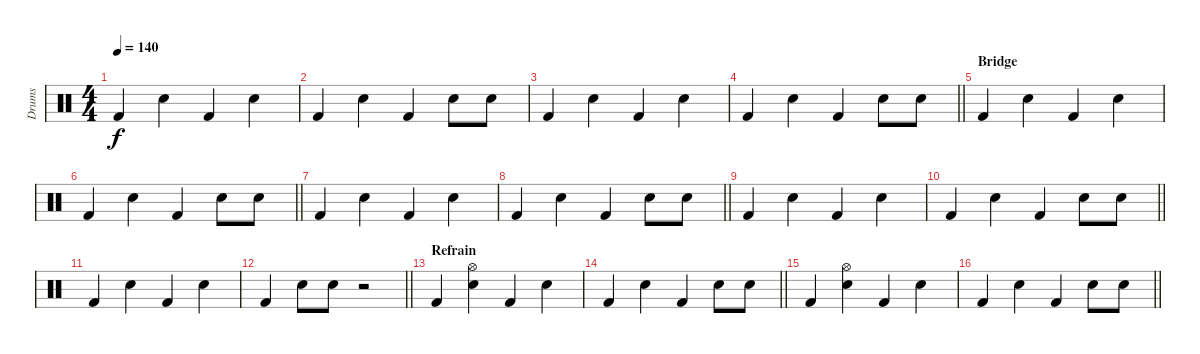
\track ("Drums" "Drums") {instrument percussion}
\staff {score}
\articulation defaults
\ts (4 4)
\tempo 140
\clef neutral
\ks c "Kick (hit) 2".4{dy f} "Snare (hit) 2".4 "Kick (hit) 2".4 "Snare (hit) 2".4
|
"Kick (hit) 2".4 "Snare (hit) 2".4 "Kick (hit) 2".4 "Snare (hit) 2".8 "Snare (hit) 2".8 |
"Kick (hit) 2".4 "Snare (hit) 2".4 "Kick (hit) 2".4 "Snare (hit) 2".4 |
\barLineRight lightlight "Kick (hit) 2".4 "Snare (hit) 2".4 "Kick (hit) 2".4 "Snare (hit) 2".8 "Snare (hit) 2".8
|
\section ("" "Bridge")
"Kick (hit) 2".4 "Snare (hit) 2".4 "Kick (hit) 2".4 "Snare (hit) 2".4 |
\barLineRight lightlight "Kick (hit) 2".4 "Snare (hit) 2".4 "Kick (hit) 2".4 "Snare (hit) 2".8 "Snare (hit) 2".8
|
"Kick (hit) 2".4 "Snare (hit) 2".4 "Kick (hit) 2".4 "Snare (hit) 2".4 |
\barLineRight lightlight "Kick (hit) 2".4 "Snare (hit) 2".4 "Kick (hit) 2".4 "Snare (hit) 2".8 "Snare (hit) 2".8
|
"Kick (hit) 2".4 "Snare (hit) 2".4 "Kick (hit) 2".4 "Snare (hit) 2".4 |
\barLineRight lightlight "Kick (hit) 2".4 "Snare (hit) 2".4 "Kick (hit) 2".4 "Snare (hit) 2".8 "Snare (hit) 2".8
|
"Kick (hit) 2".4 "Snare (hit) 2".4 "Kick (hit) 2".4 "Snare (hit) 2".4 |
\barLineRight lightlight "Kick (hit) 2".4 "Snare (hit) 2".8 "Snare (hit) 2".8
r.2 |
\section ("" "Refrain")
"Kick (hit) 2".4 ("Snare (hit) 2" "Hi-Hat (open)").4 "Kick (hit) 2".4 "Snare (hit) 2".4 |
\barLineRight lightlight "Kick (hit) 2".4 "Snare (hit) 2".4 "Kick (hit) 2".4 "Snare (hit) 2".8 "Snare (hit) 2".8
|
"Kick (hit) 2".4 ("Snare (hit) 2" "Hi-Hat (open)").4 "Kick (hit) 2".4 "Snare (hit) 2".4 |
\barLineRight lightlight "Kick (hit) 2".4 "Snare (hit) 2".4 "Kick (hit) 2".4 "Snare (hit) 2".8 "Snare (hit) 2".8
